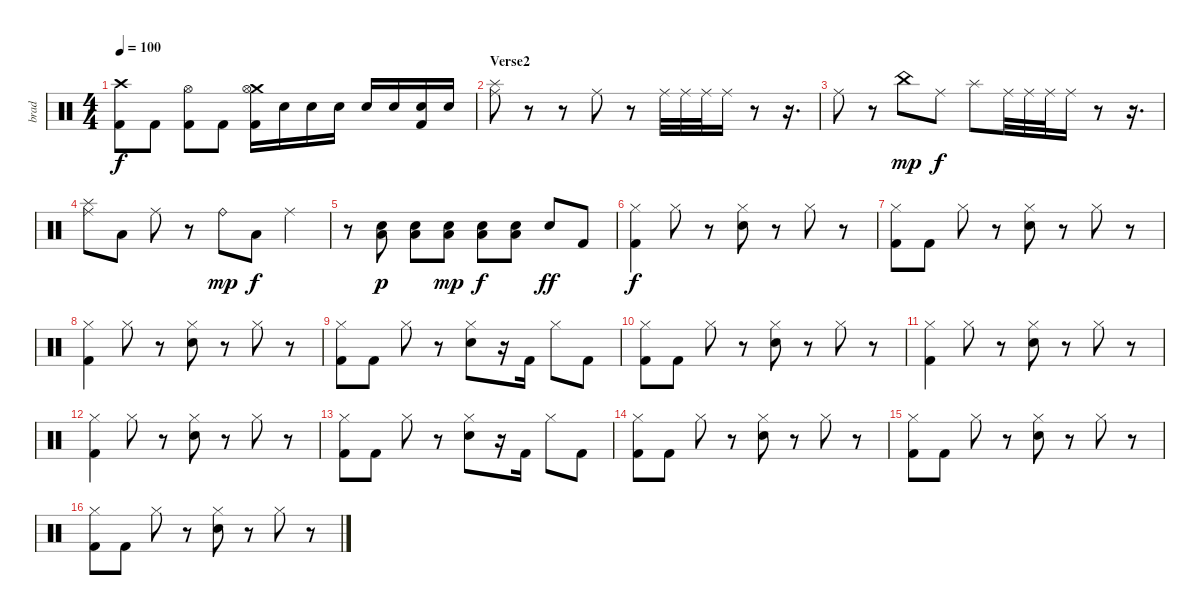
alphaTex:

\track ("brad" "brad") {instrument percussion}
\staff {score}
\articulation defaults
\ts (4 4)
\tempo 100
\clef neutral
\ks c
("Crash high (hit)" "Kick (hit) 2").8{dy f} "Kick (hit) 2".8 ("Hi-Hat (open)" "Kick (hit) 2").8 "Kick (hit) 2".8 ("Crash medium (hit)" "Hi-Hat (open)" "Kick (hit) 2").16 "Electric Snare (hit)".16 "Electric Snare (hit)".16 "Electric Snare (hit)".16 "Electric Snare (hit)".16 "Electric Snare (hit)".16 ("Electric Snare (hit)" "Kick (hit) 2").16 "Electric Snare (hit)".16 |
\section ("" "Verse2")
("Splash (hit)" "Ride (middle)").8 r.8 r.8 "Ride (middle)".8 r.8 "Ride (middle)".32 "Ride (middle)".32 "Ride (middle)".32 "Ride (middle)".16 r.8 r.16{d} |
"Ride (middle)".8 r.8 "China (hit)".8{dy mp} "Ride (middle)".8{dy f} "Splash (hit)".8 "Ride (middle)".32 "Ride (middle)".32 "Ride (middle)".32 "Ride (middle)".16 r.8 r.16{d} |
("Splash (hit)" "Ride (middle)").8 "Low Floor Tom (hit)".8 "Ride (middle)".8 r.8 "Ride (bell)".8{dy mp} "Low Floor Tom (hit)".8{dy f} "Ride (middle)".4 |
r.8 ("Electric Snare (hit)" "Low Floor Tom (hit)").8{dy p} ("Electric Snare (hit)" "Low Floor Tom (hit)").8 ("Electric Snare (hit)" "Low Floor Tom (hit)").8{dy mp} ("Electric Snare (hit)" "Low Floor Tom (hit)").8{dy f} ("Electric Snare (hit)" "Low Floor Tom (hit)").8 "Electric Snare (hit)".8{dy ff} "Kick (hit) 2".8 |
("Hi-Hat (closed)" "Kick (hit) 2").4{dy f} "Hi-Hat (closed)".8 r.8 ("Hi-Hat (closed)" "Electric Snare (hit)").8 r.8 "Hi-Hat (closed)".8 r.8 |
("Hi-Hat (closed)" "Kick (hit) 2").8 "Kick (hit) 2".8 "Hi-Hat (closed)".8 r.8 ("Hi-Hat (closed)" "Electric Snare (hit)").8 r.8 "Hi-Hat (closed)".8 r.8 |
("Hi-Hat (closed)" "Kick (hit) 2").4 "Hi-Hat (closed)".8 r.8 ("Hi-Hat (closed)" "Electric Snare (hit)").8 r.8 "Hi-Hat (closed)".8 r.8 |
("Hi-Hat (closed)" "Kick (hit) 2").8 "Kick (hit) 2".8 "Hi-Hat (closed)".8 r.8 ("Hi-Hat (closed)" "Electric Snare (hit)").8 r.16 "Kick (hit) 2".16 "Hi-Hat (closed)".8 "Kick (hit) 2".8 |
("Hi-Hat (closed)" "Kick (hit) 2").8 "Kick (hit) 2".8 "Hi-Hat (closed)".8 r.8 ("Hi-Hat (closed)" "Electric Snare (hit)").8 r.8 "Hi-Hat (closed)".8 r.8 |
("Hi-Hat (closed)" "Kick (hit) 2").4 "Hi-Hat (closed)".8 r.8 ("Hi-Hat (closed)" "Electric Snare (hit)").8 r.8 "Hi-Hat (closed)".8 r.8 |
("Hi-Hat (closed)" "Kick (hit) 2").4 "Hi-Hat (closed)".8 r.8 ("Hi-Hat (closed)" "Electric Snare (hit)").8 r.8 "Hi-Hat (closed)".8 r.8 |
("Hi-Hat (closed)" "Kick (hit) 2").8 "Kick (hit) 2".8 "Hi-Hat (closed)".8 r.8 ("Hi-Hat (closed)" "Electric Snare (hit)").8 r.16 "Kick (hit) 2".16 "Hi-Hat (closed)".8 "Kick (hit) 2".8 |
("Hi-Hat (closed)" "Kick (hit) 2").8 "Kick (hit) 2".8 "Hi-Hat (closed)".8 r.8 ("Hi-Hat (closed)" "Electric Snare (hit)").8 r.8 "Hi-Hat (closed)".8 r.8 |
("Hi-Hat (closed)" "Kick (hit) 2").8 "Kick (hit) 2".8 "Hi-Hat (closed)".8 r.8 ("Hi-Hat (closed)" "Electric Snare (hit)").8 r.8 "Hi-Hat (closed)".8 r.8 |
("Hi-Hat (closed)" "Kick (hit) 2").8 "Kick (hit) 2".8 "Hi-Hat (closed)".8 r.8 ("Hi-Hat (closed)" "Electric Snare (hit)").8 r.8 "Hi-Hat (closed)".8 r.8
